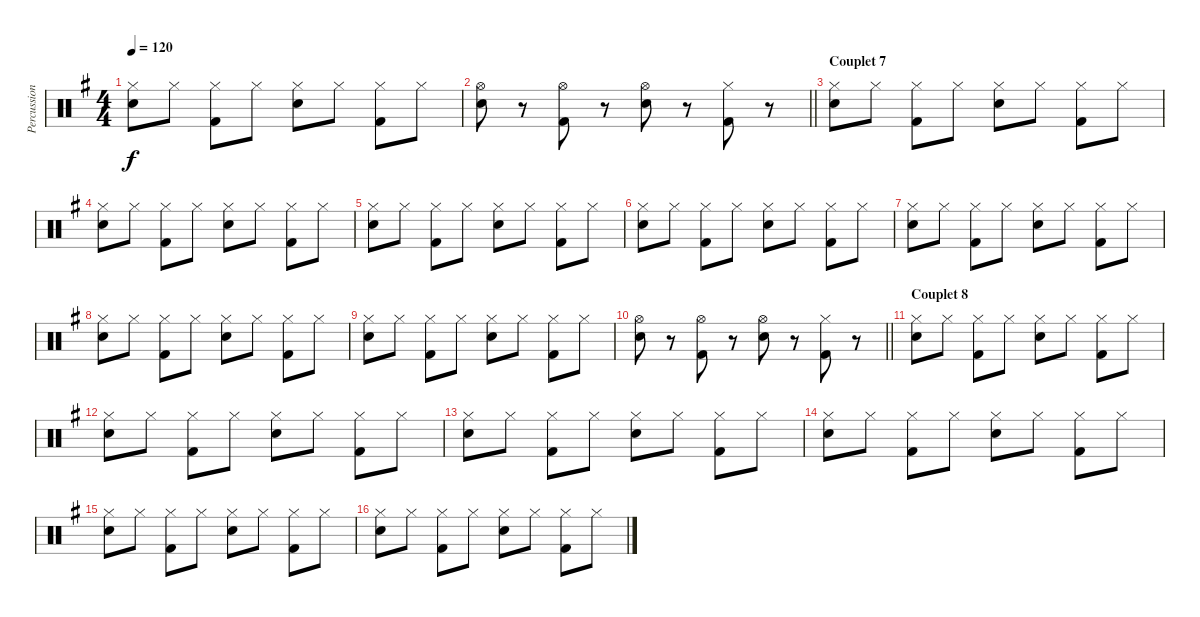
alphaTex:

\track ("Percussions" "Percussion") {instrument percussion}
\staff {score}
\articulation defaults
\ts (4 4)
\tempo 120
\clef neutral
\ks g
("Hi-Hat (closed)" "Snare (hit) 2").8{dy f} "Hi-Hat (closed)".8 ("Hi-Hat (closed)" "Kick (hit) 2").8 "Hi-Hat (closed)".8 ("Hi-Hat (closed)" "Snare (hit) 2").8 "Hi-Hat (closed)".8 ("Hi-Hat (closed)" "Kick (hit) 2").8 "Hi-Hat (closed)".8 |
\barLineRight lightlight
("Hi-Hat (open)" "Snare (hit) 2").8 r.8 ("Hi-Hat (open)" "Kick (hit) 2").8 r.8 ("Hi-Hat (open)" "Snare (hit) 2").8 r.8 ("Hi-Hat (closed)" "Kick (hit) 2").8 r.8 |
\section ("" "Couplet 7")
("Hi-Hat (closed)" "Snare (hit) 2").8 "Hi-Hat (closed)".8 ("Hi-Hat (closed)" "Kick (hit) 2").8 "Hi-Hat (closed)".8 ("Hi-Hat (closed)" "Snare (hit) 2").8 "Hi-Hat (closed)".8 ("Hi-Hat (closed)" "Kick (hit) 2").8 "Hi-Hat (closed)".8 |
("Hi-Hat (closed)" "Snare (hit) 2").8 "Hi-Hat (closed)".8 ("Hi-Hat (closed)" "Kick (hit) 2").8 "Hi-Hat (closed)".8 ("Hi-Hat (closed)" "Snare (hit) 2").8 "Hi-Hat (closed)".8 ("Hi-Hat (closed)" "Kick (hit) 2").8 "Hi-Hat (closed)".8 |
("Hi-Hat (closed)" "Snare (hit) 2").8 "Hi-Hat (closed)".8 ("Hi-Hat (closed)" "Kick (hit) 2").8 "Hi-Hat (closed)".8 ("Hi-Hat (closed)" "Snare (hit) 2").8 "Hi-Hat (closed)".8 ("Hi-Hat (closed)" "Kick (hit) 2").8 "Hi-Hat (closed)".8 |
("Hi-Hat (closed)" "Snare (hit) 2").8 "Hi-Hat (closed)".8 ("Hi-Hat (closed)" "Kick (hit) 2").8 "Hi-Hat (closed)".8 ("Hi-Hat (closed)" "Snare (hit) 2").8 "Hi-Hat (closed)".8 ("Hi-Hat (closed)" "Kick (hit) 2").8 "Hi-Hat (closed)".8 |
("Hi-Hat (closed)" "Snare (hit) 2").8 "Hi-Hat (closed)".8 ("Hi-Hat (closed)" "Kick (hit) 2").8 "Hi-Hat (closed)".8 ("Hi-Hat (closed)" "Snare (hit) 2").8 "Hi-Hat (closed)".8 ("Hi-Hat (closed)" "Kick (hit) 2").8 "Hi-Hat (closed)".8 |
("Hi-Hat (closed)" "Snare (hit) 2").8 "Hi-Hat (closed)".8 ("Hi-Hat (closed)" "Kick (hit) 2").8 "Hi-Hat (closed)".8 ("Hi-Hat (closed)" "Snare (hit) 2").8 "Hi-Hat (closed)".8 ("Hi-Hat (closed)" "Kick (hit) 2").8 "Hi-Hat (closed)".8 |
("Hi-Hat (closed)" "Snare (hit) 2").8 "Hi-Hat (closed)".8 ("Hi-Hat (closed)" "Kick (hit) 2").8 "Hi-Hat (closed)".8 ("Hi-Hat (closed)" "Snare (hit) 2").8 "Hi-Hat (closed)".8 ("Hi-Hat (closed)" "Kick (hit) 2").8 "Hi-Hat (closed)".8 |
\barLineRight lightlight
("Hi-Hat (open)" "Snare (hit) 2").8 r.8 ("Hi-Hat (open)" "Kick (hit) 2").8 r.8 ("Hi-Hat (open)" "Snare (hit) 2").8 r.8 ("Hi-Hat (closed)" "Kick (hit) 2").8 r.8 |
\section ("" "Couplet 8")
("Hi-Hat (closed)" "Snare (hit) 2").8 "Hi-Hat (closed)".8 ("Hi-Hat (closed)" "Kick (hit) 2").8 "Hi-Hat (closed)".8 ("Hi-Hat (closed)" "Snare (hit) 2").8 "Hi-Hat (closed)".8 ("Hi-Hat (closed)" "Kick (hit) 2").8 "Hi-Hat (closed)".8 |
("Hi-Hat (closed)" "Snare (hit) 2").8 "Hi-Hat (closed)".8 ("Hi-Hat (closed)" "Kick (hit) 2").8 "Hi-Hat (closed)".8 ("Hi-Hat (closed)" "Snare (hit) 2").8 "Hi-Hat (closed)".8 ("Hi-Hat (closed)" "Kick (hit) 2").8 "Hi-Hat (closed)".8 |
("Hi-Hat (closed)" "Snare (hit) 2").8 "Hi-Hat (closed)".8 ("Hi-Hat (closed)" "Kick (hit) 2").8 "Hi-Hat (closed)".8 ("Hi-Hat (closed)" "Snare (hit) 2").8 "Hi-Hat (closed)".8 ("Hi-Hat (closed)" "Kick (hit) 2").8 "Hi-Hat (closed)".8 |
("Hi-Hat (closed)" "Snare (hit) 2").8 "Hi-Hat (closed)".8 ("Hi-Hat (closed)" "Kick (hit) 2").8 "Hi-Hat (closed)".8 ("Hi-Hat (closed)" "Snare (hit) 2").8 "Hi-Hat (closed)".8 ("Hi-Hat (closed)" "Kick (hit) 2").8 "Hi-Hat (closed)".8 |
("Hi-Hat (closed)" "Snare (hit) 2").8 "Hi-Hat (closed)".8 ("Hi-Hat (closed)" "Kick (hit) 2").8 "Hi-Hat (closed)".8 ("Hi-Hat (closed)" "Snare (hit) 2").8 "Hi-Hat (closed)".8 ("Hi-Hat (closed)" "Kick (hit) 2").8 "Hi-Hat (closed)".8 |
("Hi-Hat (closed)" "Snare (hit) 2").8 "Hi-Hat (closed)".8 ("Hi-Hat (closed)" "Kick (hit) 2").8 "Hi-Hat (closed)".8 ("Hi-Hat (closed)" "Snare (hit) 2").8 "Hi-Hat (closed)".8 ("Hi-Hat (closed)" "Kick (hit) 2").8 "Hi-Hat (closed)".8
